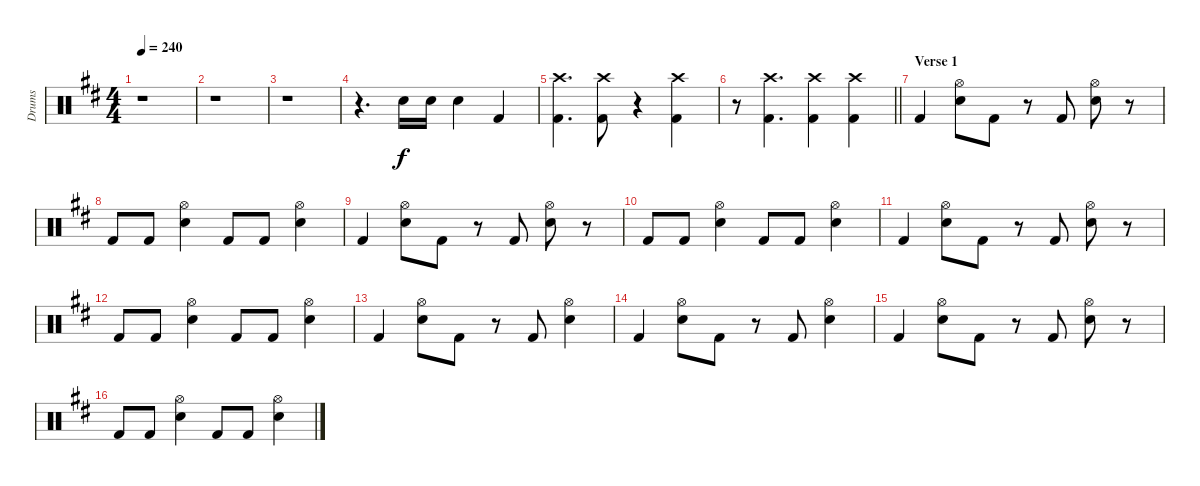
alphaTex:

\track ("Drums" "Drums") {instrument percussion}
\staff {score}
\articulation defaults
\ts (4 4)
\tempo 240
\clef neutral
\ks d
r.1{dy f} |
r.1 |
r.1 |
r.4{d} "Electric Snare (hit)".16 "Electric Snare (hit)".16 "Electric Snare (hit)".4 "Kick (hit) 2".4 |
("Crash high (hit)" "Kick (hit) 2").4{d} ("Crash high (hit)" "Kick (hit) 2").8 r.4 ("Crash high (hit)" "Kick (hit) 2").4 |
\barLineRight lightlight
r.8 ("Crash high (hit)" "Kick (hit) 2").4{d} ("Crash high (hit)" "Kick (hit) 2").4 ("Crash high (hit)" "Kick (hit) 2").4 |
\section ("" "Verse 1")
"Kick (hit) 2".4 ("Hi-Hat (open)" "Electric Snare (hit)").8 "Kick (hit) 2".8 r.8 "Kick (hit) 2".8 ("Hi-Hat (open)" "Electric Snare (hit)").8 r.8 |
"Kick (hit) 2".8 "Kick (hit) 2".8 ("Hi-Hat (open)" "Electric Snare (hit)").4 "Kick (hit) 2".8 "Kick (hit) 2".8 ("Hi-Hat (open)" "Electric Snare (hit)").4 |
"Kick (hit) 2".4 ("Hi-Hat (open)" "Electric Snare (hit)").8 "Kick (hit) 2".8 r.8 "Kick (hit) 2".8 ("Hi-Hat (open)" "Electric Snare (hit)").8 r.8 |
"Kick (hit) 2".8 "Kick (hit) 2".8 ("Hi-Hat (open)" "Electric Snare (hit)").4 "Kick (hit) 2".8 "Kick (hit) 2".8 ("Hi-Hat (open)" "Electric Snare (hit)").4 |
"Kick (hit) 2".4 ("Hi-Hat (open)" "Electric Snare (hit)").8 "Kick (hit) 2".8 r.8 "Kick (hit) 2".8 ("Hi-Hat (open)" "Electric Snare (hit)").8 r.8 |
"Kick (hit) 2".8 "Kick (hit) 2".8 ("Hi-Hat (open)" "Electric Snare (hit)").4 "Kick (hit) 2".8 "Kick (hit) 2".8 ("Hi-Hat (open)" "Electric Snare (hit)").4 |
"Kick (hit) 2".4 ("Hi-Hat (open)" "Electric Snare (hit)").8 "Kick (hit) 2".8 r.8 "Kick (hit) 2".8 ("Hi-Hat (open)" "Electric Snare (hit)").4 |
"Kick (hit) 2".4 ("Hi-Hat (open)" "Electric Snare (hit)").8 "Kick (hit) 2".8 r.8 "Kick (hit) 2".8 ("Hi-Hat (open)" "Electric Snare (hit)").4 |
"Kick (hit) 2".4 ("Hi-Hat (open)" "Electric Snare (hit)").8 "Kick (hit) 2".8 r.8 "Kick (hit) 2".8 ("Hi-Hat (open)" "Electric Snare (hit)").8 r.8 |
"Kick (hit) 2".8 "Kick (hit) 2".8 ("Hi-Hat (open)" "Electric Snare (hit)").4 "Kick (hit) 2".8 "Kick (hit) 2".8 ("Hi-Hat (open)" "Electric Snare (hit)").4
